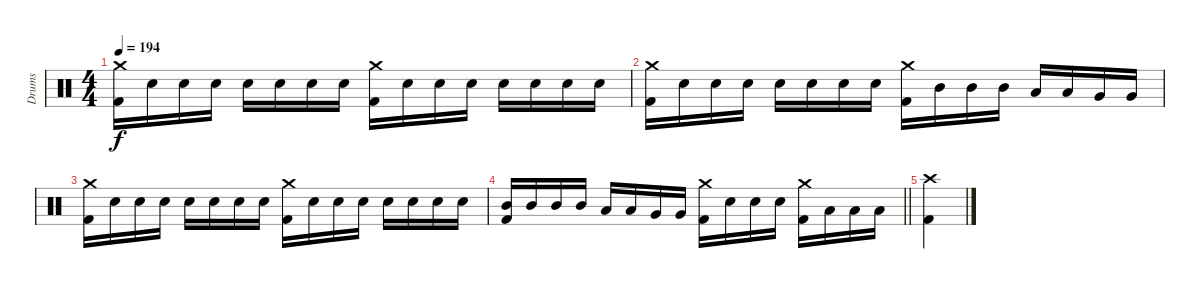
\track ("Drums" "Drums") {instrument percussion}
\staff {score}
\articulation defaults
\ts (4 4)
\tempo 194
\clef neutral
\ks c
("Crash medium (hit)" "Kick (hit) 2").16{dy f} "Electric Snare (hit)".16 "Electric Snare (hit)".16 "Electric Snare (hit)".16 "Electric Snare (hit)".16 "Electric Snare (hit)".16 "Electric Snare (hit)".16 "Electric Snare (hit)".16 ("Crash medium (hit)" "Kick (hit) 2").16 "Electric Snare (hit)".16 "Electric Snare (hit)".16 "Electric Snare (hit)".16 "Electric Snare (hit)".16 "Electric Snare (hit)".16 "Electric Snare (hit)".16 "Electric Snare (hit)".16 |
("Crash medium (hit)" "Kick (hit) 2").16 "Electric Snare (hit)".16 "Electric Snare (hit)".16 "Electric Snare (hit)".16 "Electric Snare (hit)".16 "Electric Snare (hit)".16 "Electric Snare (hit)".16 "Electric Snare (hit)".16 ("Crash medium (hit)" "Kick (hit) 2").16 "Mid Tom (hit)".16 "Mid Tom (hit)".16 "Mid Tom (hit)".16 "Low Tom (hit)".16 "Low Tom (hit)".16 "Very Low Tom (hit)".16 "Very Low Tom (hit)".16 |
("Crash medium (hit)" "Kick (hit) 2").16 "Electric Snare (hit)".16 "Electric Snare (hit)".16 "Electric Snare (hit)".16 "Electric Snare (hit)".16 "Electric Snare (hit)".16 "Electric Snare (hit)".16 "Electric Snare (hit)".16 ("Crash medium (hit)" "Kick (hit) 2").16 "Electric Snare (hit)".16 "Electric Snare (hit)".16 "Electric Snare (hit)".16 "Electric Snare (hit)".16 "Electric Snare (hit)".16 "Electric Snare (hit)".16 "Electric Snare (hit)".16 |
\barLineRight lightlight
("Mid Tom (hit)" "Kick (hit) 2").16 "Mid Tom (hit)".16 "Mid Tom (hit)".16 "Mid Tom (hit)".16 "Low Tom (hit)".16 "Low Tom (hit)".16 "Very Low Tom (hit)".16 "Very Low Tom (hit)".16 ("Crash medium (hit)" "Kick (hit) 2").16 "Electric Snare (hit)".16 "Electric Snare (hit)".16 "Electric Snare (hit)".16 ("Crash medium (hit)" "Kick (hit) 2").16 "Low Tom (hit)".16 "Low Tom (hit)".16 "Low Tom (hit)".16 |
("Crash high (hit)" "Kick (hit) 2").4
